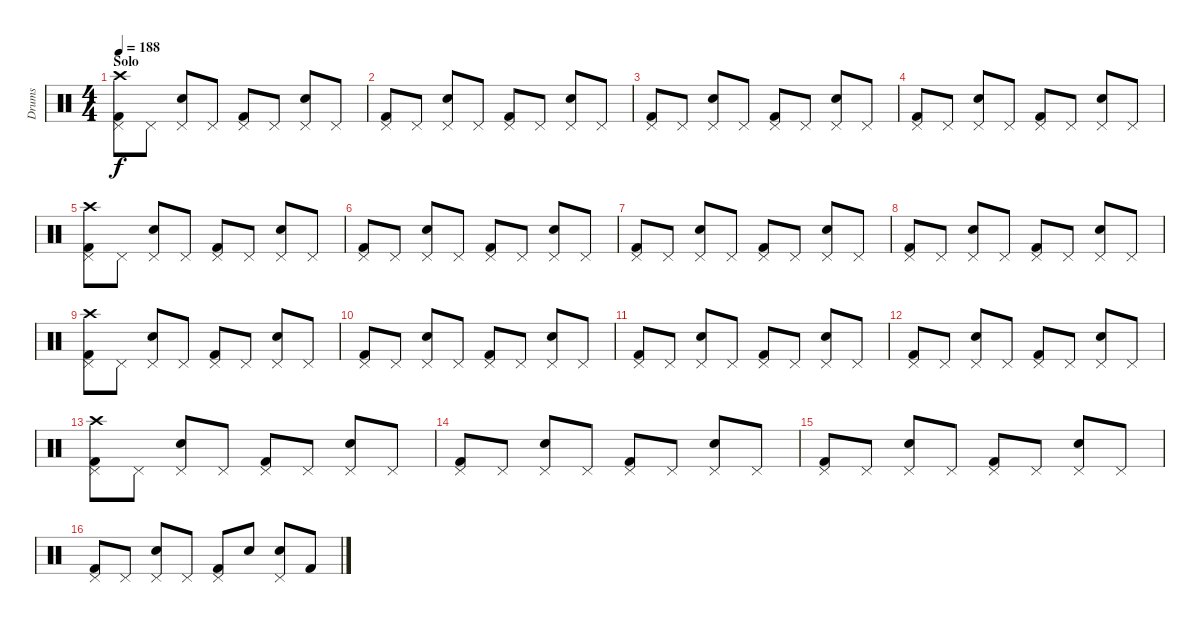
\track ("Drums" "Drums") {instrument percussion}
\staff {score}
\articulation defaults
\ts (4 4)
\section ("" "Solo")
\tempo 188
\clef neutral
\ks c
("Kick (hit) 2" "Pedal Hi-Hat (hit)" "Crash high (hit)").8{dy f} "Pedal Hi-Hat (hit)".8 ("Snare (hit) 2" "Pedal Hi-Hat (hit)").8 "Pedal Hi-Hat (hit)".8 ("Kick (hit) 2" "Pedal Hi-Hat (hit)").8 "Pedal Hi-Hat (hit)".8 ("Snare (hit) 2" "Pedal Hi-Hat (hit)").8 "Pedal Hi-Hat (hit)".8 |
("Kick (hit) 2" "Pedal Hi-Hat (hit)").8 "Pedal Hi-Hat (hit)".8 ("Snare (hit) 2" "Pedal Hi-Hat (hit)").8 "Pedal Hi-Hat (hit)".8 ("Kick (hit) 2" "Pedal Hi-Hat (hit)").8 "Pedal Hi-Hat (hit)".8 ("Snare (hit) 2" "Pedal Hi-Hat (hit)").8 "Pedal Hi-Hat (hit)".8 |
("Kick (hit) 2" "Pedal Hi-Hat (hit)").8 "Pedal Hi-Hat (hit)".8 ("Snare (hit) 2" "Pedal Hi-Hat (hit)").8 "Pedal Hi-Hat (hit)".8 ("Kick (hit) 2" "Pedal Hi-Hat (hit)").8 "Pedal Hi-Hat (hit)".8 ("Snare (hit) 2" "Pedal Hi-Hat (hit)").8 "Pedal Hi-Hat (hit)".8 |
("Kick (hit) 2" "Pedal Hi-Hat (hit)").8 "Pedal Hi-Hat (hit)".8 ("Snare (hit) 2" "Pedal Hi-Hat (hit)").8 "Pedal Hi-Hat (hit)".8 ("Kick (hit) 2" "Pedal Hi-Hat (hit)").8 "Pedal Hi-Hat (hit)".8 ("Snare (hit) 2" "Pedal Hi-Hat (hit)").8 "Pedal Hi-Hat (hit)".8 |
("Kick (hit) 2" "Pedal Hi-Hat (hit)" "Crash high (hit)").8 "Pedal Hi-Hat (hit)".8 ("Snare (hit) 2" "Pedal Hi-Hat (hit)").8 "Pedal Hi-Hat (hit)".8 ("Kick (hit) 2" "Pedal Hi-Hat (hit)").8 "Pedal Hi-Hat (hit)".8 ("Snare (hit) 2" "Pedal Hi-Hat (hit)").8 "Pedal Hi-Hat (hit)".8 |
("Kick (hit) 2" "Pedal Hi-Hat (hit)").8 "Pedal Hi-Hat (hit)".8 ("Snare (hit) 2" "Pedal Hi-Hat (hit)").8 "Pedal Hi-Hat (hit)".8 ("Kick (hit) 2" "Pedal Hi-Hat (hit)").8 "Pedal Hi-Hat (hit)".8 ("Snare (hit) 2" "Pedal Hi-Hat (hit)").8 "Pedal Hi-Hat (hit)".8 |
("Kick (hit) 2" "Pedal Hi-Hat (hit)").8 "Pedal Hi-Hat (hit)".8 ("Snare (hit) 2" "Pedal Hi-Hat (hit)").8 "Pedal Hi-Hat (hit)".8 ("Kick (hit) 2" "Pedal Hi-Hat (hit)").8 "Pedal Hi-Hat (hit)".8 ("Snare (hit) 2" "Pedal Hi-Hat (hit)").8 "Pedal Hi-Hat (hit)".8 |
("Kick (hit) 2" "Pedal Hi-Hat (hit)").8 "Pedal Hi-Hat (hit)".8 ("Snare (hit) 2" "Pedal Hi-Hat (hit)").8 "Pedal Hi-Hat (hit)".8 ("Kick (hit) 2" "Pedal Hi-Hat (hit)").8 "Pedal Hi-Hat (hit)".8 ("Snare (hit) 2" "Pedal Hi-Hat (hit)").8 "Pedal Hi-Hat (hit)".8 |
("Kick (hit) 2" "Pedal Hi-Hat (hit)" "Crash high (hit)").8 "Pedal Hi-Hat (hit)".8 ("Snare (hit) 2" "Pedal Hi-Hat (hit)").8 "Pedal Hi-Hat (hit)".8 ("Kick (hit) 2" "Pedal Hi-Hat (hit)").8 "Pedal Hi-Hat (hit)".8 ("Snare (hit) 2" "Pedal Hi-Hat (hit)").8 "Pedal Hi-Hat (hit)".8 |
("Kick (hit) 2" "Pedal Hi-Hat (hit)").8 "Pedal Hi-Hat (hit)".8 ("Snare (hit) 2" "Pedal Hi-Hat (hit)").8 "Pedal Hi-Hat (hit)".8 ("Kick (hit) 2" "Pedal Hi-Hat (hit)").8 "Pedal Hi-Hat (hit)".8 ("Snare (hit) 2" "Pedal Hi-Hat (hit)").8 "Pedal Hi-Hat (hit)".8 |
("Kick (hit) 2" "Pedal Hi-Hat (hit)").8 "Pedal Hi-Hat (hit)".8 ("Snare (hit) 2" "Pedal Hi-Hat (hit)").8 "Pedal Hi-Hat (hit)".8 ("Kick (hit) 2" "Pedal Hi-Hat (hit)").8 "Pedal Hi-Hat (hit)".8 ("Snare (hit) 2" "Pedal Hi-Hat (hit)").8 "Pedal Hi-Hat (hit)".8 |
("Kick (hit) 2" "Pedal Hi-Hat (hit)").8 "Pedal Hi-Hat (hit)".8 ("Snare (hit) 2" "Pedal Hi-Hat (hit)").8 "Pedal Hi-Hat (hit)".8 ("Kick (hit) 2" "Pedal Hi-Hat (hit)").8 "Pedal Hi-Hat (hit)".8 ("Snare (hit) 2" "Pedal Hi-Hat (hit)").8 "Pedal Hi-Hat (hit)".8 |
("Kick (hit) 2" "Pedal Hi-Hat (hit)" "Crash high (hit)").8 "Pedal Hi-Hat (hit)".8 ("Snare (hit) 2" "Pedal Hi-Hat (hit)").8 "Pedal Hi-Hat (hit)".8 ("Kick (hit) 2" "Pedal Hi-Hat (hit)").8 "Pedal Hi-Hat (hit)".8 ("Snare (hit) 2" "Pedal Hi-Hat (hit)").8 "Pedal Hi-Hat (hit)".8 |
("Kick (hit) 2" "Pedal Hi-Hat (hit)").8 "Pedal Hi-Hat (hit)".8 ("Snare (hit) 2" "Pedal Hi-Hat (hit)").8 "Pedal Hi-Hat (hit)".8 ("Kick (hit) 2" "Pedal Hi-Hat (hit)").8 "Pedal Hi-Hat (hit)".8 ("Snare (hit) 2" "Pedal Hi-Hat (hit)").8 "Pedal Hi-Hat (hit)".8 |
("Kick (hit) 2" "Pedal Hi-Hat (hit)").8 "Pedal Hi-Hat (hit)".8 ("Snare (hit) 2" "Pedal Hi-Hat (hit)").8 "Pedal Hi-Hat (hit)".8 ("Kick (hit) 2" "Pedal Hi-Hat (hit)").8 "Pedal Hi-Hat (hit)".8 ("Snare (hit) 2" "Pedal Hi-Hat (hit)").8 "Pedal Hi-Hat (hit)".8 |
("Kick (hit) 2" "Pedal Hi-Hat (hit)").8 "Pedal Hi-Hat (hit)".8 ("Snare (hit) 2" "Pedal Hi-Hat (hit)").8 "Pedal Hi-Hat (hit)".8 ("Kick (hit) 2" "Pedal Hi-Hat (hit)").8 "Snare (hit) 2".8 ("Snare (hit) 2" "Pedal Hi-Hat (hit)").8 "Kick (hit) 2".8
